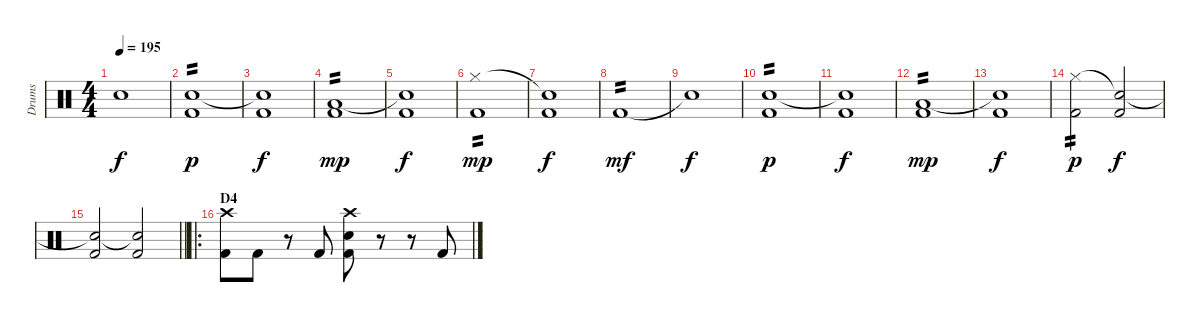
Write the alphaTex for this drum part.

\track ("Drums" "Drums") {instrument percussion}
\staff {score}
\articulation defaults
\ts (4 4)
\tempo 195
\clef neutral
\ks c "Snare (hit)"{t}.1{dy f}
|
("Snare (hit) 2" "Kick (hit) 2").1{tp 2 dy p} |
("Snare (hit)"{t} "Kick (hit) 2").1{dy f} |
("Low Tom (hit)" "Kick (hit) 2").1{tp 2 dy mp} |
("Snare (hit)"{t} "Kick (hit) 2").1{dy f} |
("Hi-Hat (closed)" "Kick (hit) 2").1{tp 2 dy mp} |
("Snare (hit)"{t} "Kick (hit) 2").1{dy f} |
"Kick (hit) 2".1{tp 2 dy mf} |
"Snare (hit)"{t}.1{dy f} |
("Snare (hit) 2" "Kick (hit) 2").1{tp 2 dy p} |
("Snare (hit)"{t} "Kick (hit) 2").1{dy f} |
("Low Tom (hit)" "Kick (hit) 2").1{tp 2 dy mp} |
("Snare (hit)"{t} "Kick (hit) 2").1{dy f} |
("Hi-Hat (closed)" "Kick (hit) 2").2{tp 2 dy p} ("Snare (hit)"{t} "Kick (hit) 2").2{dy f} |
\barLineRight lightlight
("Snare (hit)"{t} "Kick (hit) 2").2 ("Snare (hit)"{t} "Kick (hit) 2").2 |
\ro
\section ("" "D4")
("Crash high (hit)" "Kick (hit) 2").8 "Kick (hit) 2".8 r.8 "Kick (hit) 2".8 ("Crash high (hit)" "Snare (hit) 2" "Kick (hit) 2").8 r.8 r.8 "Kick (hit) 2".8
